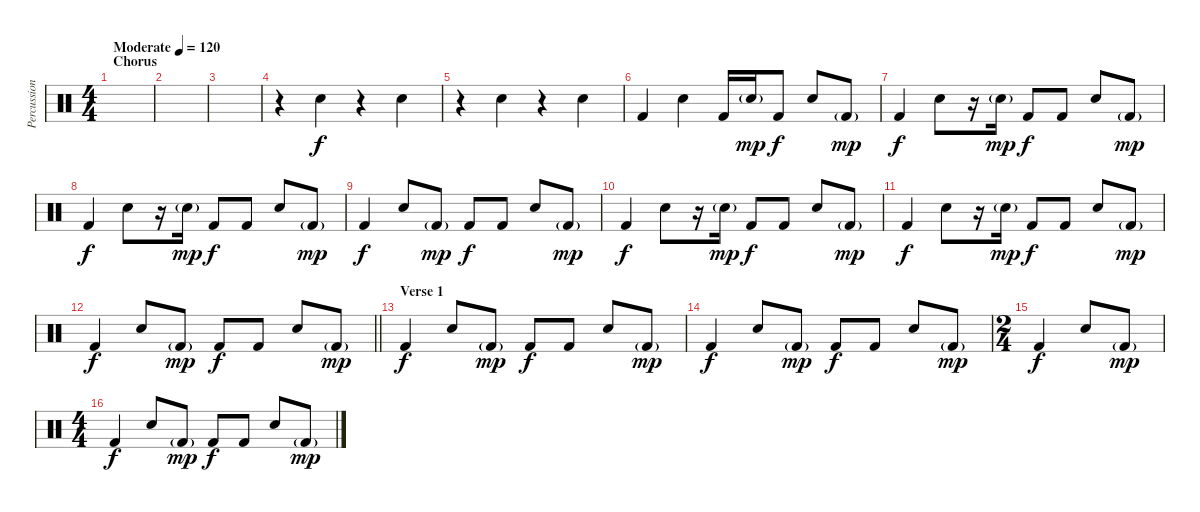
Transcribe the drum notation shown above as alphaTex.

\track ("Percussion" "Percussion") {instrument percussion}
\staff {score}
\articulation defaults
\ts (4 4)
\section ("" "Chorus")
\tempo (120 "Moderate")
\clef neutral
\ks c
|
|
|
r.4 "Snare (hit) 2".4 r.4 "Snare (hit) 2".4 |
r.4 "Snare (hit) 2".4 r.4 "Snare (hit) 2".4 |
"Kick (hit) 2".4 "Snare (hit) 2".4 "Kick (hit) 2".16 "Snare (hit) 2"{g}.16{dy mp} "Kick (hit) 2".8{dy f} "Snare (hit) 2".8 "Kick (hit) 2"{g}.8{dy mp} |
"Kick (hit) 2".4{dy f} "Snare (hit) 2".8 r.16 "Snare (hit) 2"{g}.16{dy mp} "Kick (hit) 2".8{dy f} "Kick (hit) 2".8 "Snare (hit) 2".8 "Kick (hit) 2"{g}.8{dy mp} |
"Kick (hit) 2".4{dy f} "Snare (hit) 2".8 r.16 "Snare (hit) 2"{g}.16{dy mp} "Kick (hit) 2".8{dy f} "Kick (hit) 2".8 "Snare (hit) 2".8 "Kick (hit) 2"{g}.8{dy mp} |
"Kick (hit) 2".4{dy f} "Snare (hit) 2".8 "Kick (hit) 2"{g}.8{dy mp} "Kick (hit) 2".8{dy f} "Kick (hit) 2".8 "Snare (hit) 2".8 "Kick (hit) 2"{g}.8{dy mp} |
"Kick (hit) 2".4{dy f} "Snare (hit) 2".8 r.16 "Snare (hit) 2"{g}.16{dy mp} "Kick (hit) 2".8{dy f} "Kick (hit) 2".8 "Snare (hit) 2".8 "Kick (hit) 2"{g}.8{dy mp} |
"Kick (hit) 2".4{dy f} "Snare (hit) 2".8 r.16 "Snare (hit) 2"{g}.16{dy mp} "Kick (hit) 2".8{dy f} "Kick (hit) 2".8 "Snare (hit) 2".8 "Kick (hit) 2"{g}.8{dy mp} |
\barLineRight lightlight "Kick (hit) 2".4{dy f} "Snare (hit) 2".8 "Kick (hit) 2"{g}.8{dy mp} "Kick (hit) 2".8{dy f} "Kick (hit) 2".8 "Snare (hit) 2".8 "Kick (hit) 2"{g}.8{dy mp}
|
\section ("" "Verse 1")
"Kick (hit) 2".4{dy f} "Snare (hit) 2".8 "Kick (hit) 2"{g}.8{dy mp} "Kick (hit) 2".8{dy f} "Kick (hit) 2".8 "Snare (hit) 2".8 "Kick (hit) 2"{g}.8{dy mp} |
"Kick (hit) 2".4{dy f} "Snare (hit) 2".8 "Kick (hit) 2"{g}.8{dy mp} "Kick (hit) 2".8{dy f} "Kick (hit) 2".8 "Snare (hit) 2".8 "Kick (hit) 2"{g}.8{dy mp} |
\ts (2 4)
"Kick (hit) 2".4{dy f} "Snare (hit) 2".8 "Kick (hit) 2"{g}.8{dy mp} |
\ts (4 4)
"Kick (hit) 2".4{dy f} "Snare (hit) 2".8 "Kick (hit) 2"{g}.8{dy mp} "Kick (hit) 2".8{dy f} "Kick (hit) 2".8 "Snare (hit) 2".8 "Kick (hit) 2"{g}.8{dy mp}
